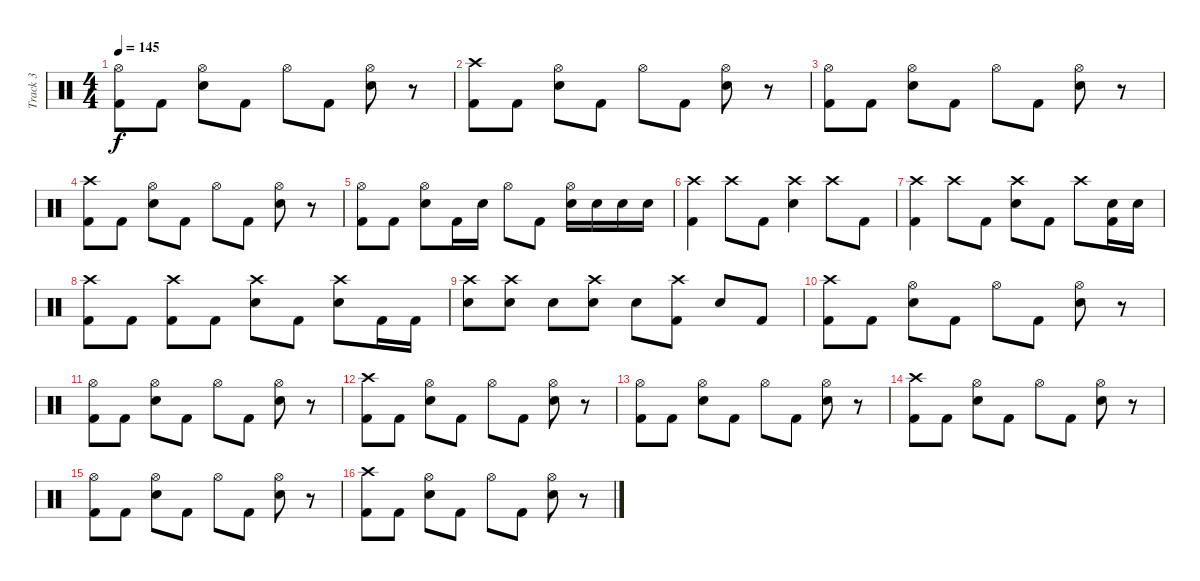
\track ("Track 3" "Track 3") {instrument percussion}
\staff {score}
\articulation defaults
\ts (4 4)
\tempo 145
\clef neutral
\ks c
("Hi-Hat (open)" "Kick (hit) 2").8{dy f} "Kick (hit) 2".8 ("Hi-Hat (open)" "Electric Snare (hit)").8 "Kick (hit) 2".8 "Hi-Hat (open)".8 "Kick (hit) 2".8 ("Hi-Hat (open)" "Electric Snare (hit)").8 r.8 |
("Crash high (hit)" "Kick (hit) 2").8 "Kick (hit) 2".8 ("Electric Snare (hit)" "Hi-Hat (open)").8 "Kick (hit) 2".8 "Hi-Hat (open)".8 "Kick (hit) 2".8 ("Hi-Hat (open)" "Electric Snare (hit)").8 r.8 |
("Hi-Hat (open)" "Kick (hit) 2").8 "Kick (hit) 2".8 ("Hi-Hat (open)" "Electric Snare (hit)").8 "Kick (hit) 2".8 "Hi-Hat (open)".8 "Kick (hit) 2".8 ("Hi-Hat (open)" "Electric Snare (hit)").8 r.8 |
("Crash high (hit)" "Kick (hit) 2").8 "Kick (hit) 2".8 ("Electric Snare (hit)" "Hi-Hat (open)").8 "Kick (hit) 2".8 "Hi-Hat (open)".8 "Kick (hit) 2".8 ("Hi-Hat (open)" "Electric Snare (hit)").8 r.8 |
("Hi-Hat (open)" "Kick (hit) 2").8 "Kick (hit) 2".8 ("Hi-Hat (open)" "Electric Snare (hit)").8 "Kick (hit) 2".16 "Electric Snare (hit)".16 "Hi-Hat (open)".8 "Kick (hit) 2".8 ("Hi-Hat (open)" "Electric Snare (hit)").16 "Electric Snare (hit)".16 "Electric Snare (hit)".16 "Electric Snare (hit)".16 |
("Crash high (hit)" "Kick (hit) 2").4 "Crash high (hit)".8 "Kick (hit) 2".8 ("Crash high (hit)" "Electric Snare (hit)").4 "Crash high (hit)".8 "Kick (hit) 2".8 |
("Crash high (hit)" "Kick (hit) 2").4 "Crash high (hit)".8 "Kick (hit) 2".8 ("Crash high (hit)" "Electric Snare (hit)").8 "Kick (hit) 2".8 "Crash high (hit)".8 ("Kick (hit) 2" "Electric Snare (hit)").16 "Electric Snare (hit)".16 |
("Crash high (hit)" "Kick (hit) 2").8 "Kick (hit) 2".8 ("Crash high (hit)" "Kick (hit) 2").8 "Kick (hit) 2".8 ("Crash high (hit)" "Electric Snare (hit)").8 "Kick (hit) 2".8 ("Crash high (hit)" "Electric Snare (hit)").8 "Kick (hit) 2".16 "Kick (hit) 2".16 |
("Crash high (hit)" "Electric Snare (hit)").8 ("Crash high (hit)" "Electric Snare (hit)").8 "Electric Snare (hit)".8 ("Crash high (hit)" "Electric Snare (hit)").8 "Electric Snare (hit)".8 ("Crash high (hit)" "Kick (hit) 2").8 "Electric Snare (hit)".8 "Kick (hit) 2".8 |
("Crash high (hit)" "Kick (hit) 2").8 "Kick (hit) 2".8 ("Electric Snare (hit)" "Hi-Hat (open)").8 "Kick (hit) 2".8 "Hi-Hat (open)".8 "Kick (hit) 2".8 ("Hi-Hat (open)" "Electric Snare (hit)").8 r.8 |
("Hi-Hat (open)" "Kick (hit) 2").8 "Kick (hit) 2".8 ("Hi-Hat (open)" "Electric Snare (hit)").8 "Kick (hit) 2".8 "Hi-Hat (open)".8 "Kick (hit) 2".8 ("Hi-Hat (open)" "Electric Snare (hit)").8 r.8 |
("Crash high (hit)" "Kick (hit) 2").8 "Kick (hit) 2".8 ("Electric Snare (hit)" "Hi-Hat (open)").8 "Kick (hit) 2".8 "Hi-Hat (open)".8 "Kick (hit) 2".8 ("Hi-Hat (open)" "Electric Snare (hit)").8 r.8 |
("Hi-Hat (open)" "Kick (hit) 2").8 "Kick (hit) 2".8 ("Hi-Hat (open)" "Electric Snare (hit)").8 "Kick (hit) 2".8 "Hi-Hat (open)".8 "Kick (hit) 2".8 ("Hi-Hat (open)" "Electric Snare (hit)").8 r.8 |
("Crash high (hit)" "Kick (hit) 2").8 "Kick (hit) 2".8 ("Electric Snare (hit)" "Hi-Hat (open)").8 "Kick (hit) 2".8 "Hi-Hat (open)".8 "Kick (hit) 2".8 ("Hi-Hat (open)" "Electric Snare (hit)").8 r.8 |
("Hi-Hat (open)" "Kick (hit) 2").8 "Kick (hit) 2".8 ("Hi-Hat (open)" "Electric Snare (hit)").8 "Kick (hit) 2".8 "Hi-Hat (open)".8 "Kick (hit) 2".8 ("Hi-Hat (open)" "Electric Snare (hit)").8 r.8 |
("Crash high (hit)" "Kick (hit) 2").8 "Kick (hit) 2".8 ("Electric Snare (hit)" "Hi-Hat (open)").8 "Kick (hit) 2".8 "Hi-Hat (open)".8 "Kick (hit) 2".8 ("Hi-Hat (open)" "Electric Snare (hit)").8 r.8
